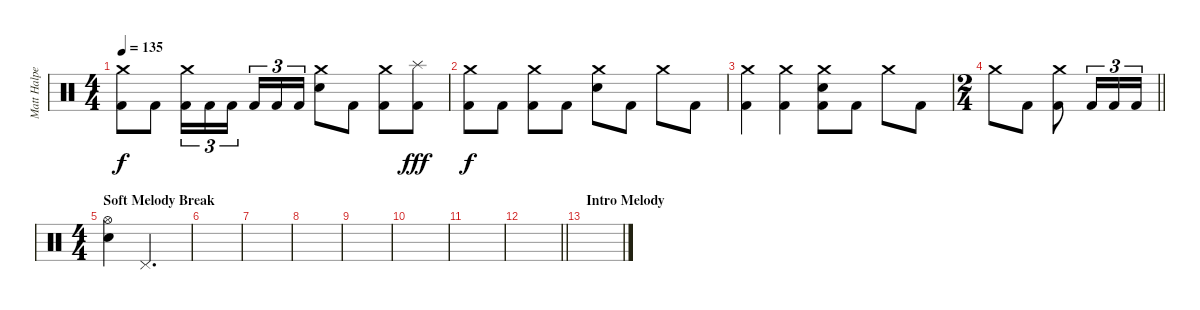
\track ("Matt Halpern - Drums" "Matt Halpe") {instrument percussion}
\staff {score}
\articulation defaults
\ts (4 4)
\tempo 135
\clef neutral
\ks c
("Crash medium (hit)" "Kick (hit) 2").8{dy f} "Kick (hit) 2".8 ("Crash medium (hit)" "Kick (hit) 2").16{tu (3 2)} "Kick (hit) 2".16{tu (3 2)} "Kick (hit) 2".16{tu (3 2) beam splitsecondary} "Kick (hit) 2".16{tu (3 2)} "Kick (hit) 2".16{tu (3 2)} "Kick (hit) 2".16{tu (3 2)} ("Crash medium (hit)" "Electric Snare (hit)").8 "Kick (hit) 2".8 ("Crash medium (hit)" "Kick (hit) 2").8 ("Splash (hit)" "Kick (hit) 2").8{dy fff} |
("Crash medium (hit)" "Kick (hit) 2").8{dy f} "Kick (hit) 2".8 ("Crash medium (hit)" "Kick (hit) 2").8 "Kick (hit) 2".8 ("Crash medium (hit)" "Electric Snare (hit)").8 "Kick (hit) 2".8 "Crash medium (hit)".8 "Kick (hit) 2".8 |
("Crash medium (hit)" "Kick (hit) 2").4 ("Crash medium (hit)" "Kick (hit) 2").4 ("Crash medium (hit)" "Electric Snare (hit)" "Kick (hit) 2").8 "Kick (hit) 2".8 "Crash medium (hit)".8 "Kick (hit) 2".8 |
\ts (2 4)
\barLineRight lightlight "Crash medium (hit)".8 "Kick (hit) 2".8
("Crash medium (hit)" "Kick (hit) 2").8 "Kick (hit) 2".16{tu (3 2)} "Kick (hit) 2".16{tu (3 2)} "Kick (hit) 2".16{tu (3 2)} |
\ts (4 4)
\section ("" "Soft Melody Break")
("Hi-Hat (open)" "Electric Snare (hit)").4 "Pedal Hi-Hat (hit)".2{d} |
|
|
|
|
|
|
\barLineRight lightlight
|
\section ("" "Intro Melody")
